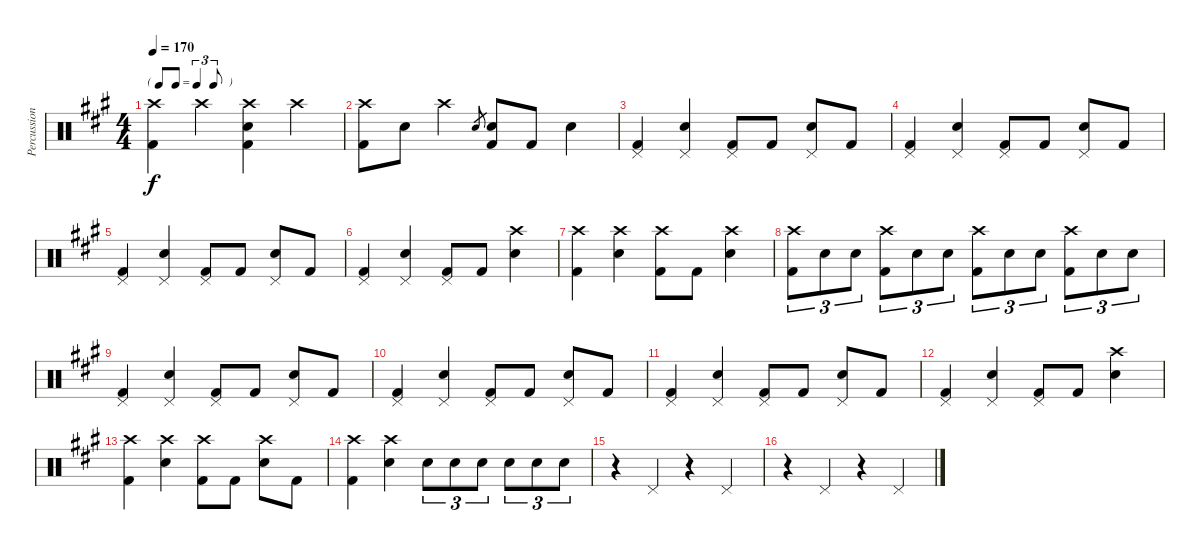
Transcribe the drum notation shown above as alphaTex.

\track ("Percussion" "Percussion") {instrument percussion}
\staff {score}
\articulation defaults
\ts (4 4)
\tf triplet8th
\tempo 170
\clef neutral
\ks a
("Crash high (hit)" "Kick (hit) 2").4{dy f} "Crash high (hit)".4 ("Crash high (hit)" "Electric Snare (hit)" "Kick (hit) 2").4 "Crash high (hit)".4 |
("Crash high (hit)" "Kick (hit) 2").8 "Electric Snare (hit)".8 "Crash high (hit)".4 "Electric Snare (hit)".8{gr} ("Electric Snare (hit)" "Kick (hit) 2").8 "Kick (hit) 2".8 "Electric Snare (hit)".4 |
("Pedal Hi-Hat (hit)" "Kick (hit) 2").4 ("Pedal Hi-Hat (hit)" "Electric Snare (hit)").4 ("Pedal Hi-Hat (hit)" "Kick (hit) 2").8 "Kick (hit) 2".8 ("Pedal Hi-Hat (hit)" "Electric Snare (hit)").8 "Kick (hit) 2".8 |
("Pedal Hi-Hat (hit)" "Kick (hit) 2").4 ("Pedal Hi-Hat (hit)" "Electric Snare (hit)").4 ("Pedal Hi-Hat (hit)" "Kick (hit) 2").8 "Kick (hit) 2".8 ("Pedal Hi-Hat (hit)" "Electric Snare (hit)").8 "Kick (hit) 2".8 |
("Pedal Hi-Hat (hit)" "Kick (hit) 2").4 ("Pedal Hi-Hat (hit)" "Electric Snare (hit)").4 ("Pedal Hi-Hat (hit)" "Kick (hit) 2").8 "Kick (hit) 2".8 ("Pedal Hi-Hat (hit)" "Electric Snare (hit)").8 "Kick (hit) 2".8 |
("Pedal Hi-Hat (hit)" "Kick (hit) 2").4 ("Pedal Hi-Hat (hit)" "Electric Snare (hit)").4 ("Pedal Hi-Hat (hit)" "Kick (hit) 2").8 "Kick (hit) 2".8 ("Crash high (hit)" "Electric Snare (hit)").4 |
("Crash high (hit)" "Kick (hit) 2").4 ("Crash high (hit)" "Electric Snare (hit)").4 ("Crash high (hit)" "Kick (hit) 2").8 "Kick (hit) 2".8 ("Crash high (hit)" "Electric Snare (hit)").4 |
("Crash high (hit)" "Kick (hit) 2").8{tu (3 2)} "Electric Snare (hit)".8{tu (3 2)} "Electric Snare (hit)".8{tu (3 2)} ("Crash high (hit)" "Kick (hit) 2").8{tu (3 2)} "Electric Snare (hit)".8{tu (3 2)} "Electric Snare (hit)".8{tu (3 2)} ("Crash high (hit)" "Kick (hit) 2").8{tu (3 2)} "Electric Snare (hit)".8{tu (3 2)} "Electric Snare (hit)".8{tu (3 2)} ("Crash high (hit)" "Kick (hit) 2").8{tu (3 2)} "Electric Snare (hit)".8{tu (3 2)} "Electric Snare (hit)".8{tu (3 2)} |
("Pedal Hi-Hat (hit)" "Kick (hit) 2").4 ("Pedal Hi-Hat (hit)" "Electric Snare (hit)").4 ("Pedal Hi-Hat (hit)" "Kick (hit) 2").8 "Kick (hit) 2".8 ("Pedal Hi-Hat (hit)" "Electric Snare (hit)").8 "Kick (hit) 2".8 |
("Pedal Hi-Hat (hit)" "Kick (hit) 2").4 ("Pedal Hi-Hat (hit)" "Electric Snare (hit)").4 ("Pedal Hi-Hat (hit)" "Kick (hit) 2").8 "Kick (hit) 2".8 ("Pedal Hi-Hat (hit)" "Electric Snare (hit)").8 "Kick (hit) 2".8 |
("Pedal Hi-Hat (hit)" "Kick (hit) 2").4 ("Pedal Hi-Hat (hit)" "Electric Snare (hit)").4 ("Pedal Hi-Hat (hit)" "Kick (hit) 2").8 "Kick (hit) 2".8 ("Pedal Hi-Hat (hit)" "Electric Snare (hit)").8 "Kick (hit) 2".8 |
("Pedal Hi-Hat (hit)" "Kick (hit) 2").4 ("Pedal Hi-Hat (hit)" "Electric Snare (hit)").4 ("Pedal Hi-Hat (hit)" "Kick (hit) 2").8 "Kick (hit) 2".8 ("Crash high (hit)" "Electric Snare (hit)").4 |
("Crash high (hit)" "Kick (hit) 2").4 ("Crash high (hit)" "Electric Snare (hit)").4 ("Crash high (hit)" "Kick (hit) 2").8 "Kick (hit) 2".8 ("Crash high (hit)" "Electric Snare (hit)").8 "Kick (hit) 2".8 |
("Crash high (hit)" "Kick (hit) 2").4 ("Crash high (hit)" "Electric Snare (hit)").4 "Electric Snare (hit)".8{tu (3 2)} "Electric Snare (hit)".8{tu (3 2)} "Electric Snare (hit)".8{tu (3 2)} "Electric Snare (hit)".8{tu (3 2)} "Electric Snare (hit)".8{tu (3 2)} "Electric Snare (hit)".8{tu (3 2)} |
r.4 "Pedal Hi-Hat (hit)".4 r.4 "Pedal Hi-Hat (hit)".4 |
r.4 "Pedal Hi-Hat (hit)".4 r.4 "Pedal Hi-Hat (hit)".4
